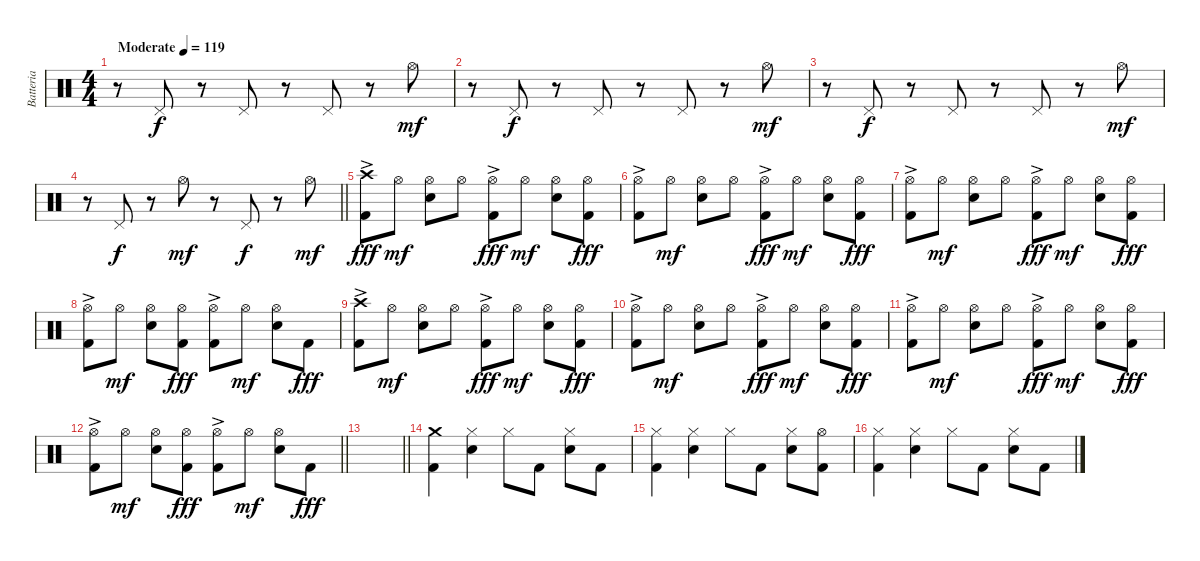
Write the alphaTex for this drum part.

\track ("Batteria" "Batteria") {instrument percussion}
\staff {score}
\articulation defaults
\ts (4 4)
\tempo (119 "Moderate")
\clef neutral
\ks c
r.8{dy f} "Pedal Hi-Hat (hit)".8 r.8 "Pedal Hi-Hat (hit)".8 r.8 "Pedal Hi-Hat (hit)".8 r.8 "Hi-Hat (open)".8{dy mf} |
r.8 "Pedal Hi-Hat (hit)".8{dy f} r.8 "Pedal Hi-Hat (hit)".8 r.8 "Pedal Hi-Hat (hit)".8 r.8 "Hi-Hat (open)".8{dy mf} |
r.8 "Pedal Hi-Hat (hit)".8{dy f} r.8 "Pedal Hi-Hat (hit)".8 r.8 "Pedal Hi-Hat (hit)".8 r.8 "Hi-Hat (open)".8{dy mf} |
\barLineRight lightlight
r.8 "Pedal Hi-Hat (hit)".8{dy f} r.8 "Hi-Hat (open)".8{dy mf} r.8 "Pedal Hi-Hat (hit)".8{dy f} r.8 "Hi-Hat (open)".8{dy mf} |
("Crash high (hit)"{ac} "Kick (hit) 2").8{dy fff} "Hi-Hat (open)".8{dy mf} ("Hi-Hat (open)" "Electric Snare (hit)").8 "Hi-Hat (open)".8 ("Hi-Hat (open)"{ac} "Kick (hit) 2").8{dy fff} "Hi-Hat (open)".8{dy mf} ("Hi-Hat (open)" "Electric Snare (hit)").8 ("Hi-Hat (open)" "Kick (hit) 2").8{dy fff} |
("Hi-Hat (open)"{ac} "Kick (hit) 2").8 "Hi-Hat (open)".8{dy mf} ("Hi-Hat (open)" "Electric Snare (hit)").8 "Hi-Hat (open)".8 ("Hi-Hat (open)"{ac} "Kick (hit) 2").8{dy fff} "Hi-Hat (open)".8{dy mf} ("Hi-Hat (open)" "Electric Snare (hit)").8 ("Hi-Hat (open)" "Kick (hit) 2").8{dy fff} |
("Hi-Hat (open)"{ac} "Kick (hit) 2").8 "Hi-Hat (open)".8{dy mf} ("Hi-Hat (open)" "Electric Snare (hit)").8 "Hi-Hat (open)".8 ("Hi-Hat (open)"{ac} "Kick (hit) 2").8{dy fff} "Hi-Hat (open)".8{dy mf} ("Hi-Hat (open)" "Electric Snare (hit)").8 ("Hi-Hat (open)" "Kick (hit) 2").8{dy fff} |
("Hi-Hat (open)"{ac} "Kick (hit) 2").8 "Hi-Hat (open)".8{dy mf} ("Hi-Hat (open)" "Electric Snare (hit)").8 ("Hi-Hat (open)" "Kick (hit) 2").8{dy fff} ("Hi-Hat (open)"{ac} "Kick (hit) 2").8 "Hi-Hat (open)".8{dy mf} ("Hi-Hat (open)" "Electric Snare (hit)").8 "Kick (hit) 2".8{dy fff} |
("Crash high (hit)"{ac} "Kick (hit) 2").8 "Hi-Hat (open)".8{dy mf} ("Hi-Hat (open)" "Electric Snare (hit)").8 "Hi-Hat (open)".8 ("Hi-Hat (open)"{ac} "Kick (hit) 2").8{dy fff} "Hi-Hat (open)".8{dy mf} ("Hi-Hat (open)" "Electric Snare (hit)").8 ("Hi-Hat (open)" "Kick (hit) 2").8{dy fff} |
("Hi-Hat (open)"{ac} "Kick (hit) 2").8 "Hi-Hat (open)".8{dy mf} ("Hi-Hat (open)" "Electric Snare (hit)").8 "Hi-Hat (open)".8 ("Hi-Hat (open)"{ac} "Kick (hit) 2").8{dy fff} "Hi-Hat (open)".8{dy mf} ("Hi-Hat (open)" "Electric Snare (hit)").8 ("Hi-Hat (open)" "Kick (hit) 2").8{dy fff} |
("Hi-Hat (open)"{ac} "Kick (hit) 2").8 "Hi-Hat (open)".8{dy mf} ("Hi-Hat (open)" "Electric Snare (hit)").8 "Hi-Hat (open)".8 ("Hi-Hat (open)"{ac} "Kick (hit) 2").8{dy fff} "Hi-Hat (open)".8{dy mf} ("Hi-Hat (open)" "Electric Snare (hit)").8 ("Hi-Hat (open)" "Kick (hit) 2").8{dy fff} |
\barLineRight lightlight
("Hi-Hat (open)"{ac} "Kick (hit) 2").8 "Hi-Hat (open)".8{dy mf} ("Hi-Hat (open)" "Electric Snare (hit)").8 ("Hi-Hat (open)" "Kick (hit) 2").8{dy fff} ("Hi-Hat (open)"{ac} "Kick (hit) 2").8 "Hi-Hat (open)".8{dy mf} ("Hi-Hat (open)" "Electric Snare (hit)").8 "Kick (hit) 2".8{dy fff} |
\barLineRight lightlight
|
("Crash medium (hit)" "Kick (hit) 2").4 ("Hi-Hat (closed)" "Electric Snare (hit)").4 "Hi-Hat (closed)".8 "Kick (hit) 2".8 ("Hi-Hat (closed)" "Electric Snare (hit)").8 "Kick (hit) 2".8 |
("Hi-Hat (closed)" "Kick (hit) 2").4 ("Hi-Hat (closed)" "Electric Snare (hit)").4 "Hi-Hat (closed)".8 "Kick (hit) 2".8 ("Hi-Hat (closed)" "Electric Snare (hit)").8 ("Hi-Hat (open)" "Kick (hit) 2").8 |
("Hi-Hat (closed)" "Kick (hit) 2").4 ("Hi-Hat (closed)" "Electric Snare (hit)").4 "Hi-Hat (closed)".8 "Kick (hit) 2".8 ("Hi-Hat (closed)" "Electric Snare (hit)").8 "Kick (hit) 2".8
